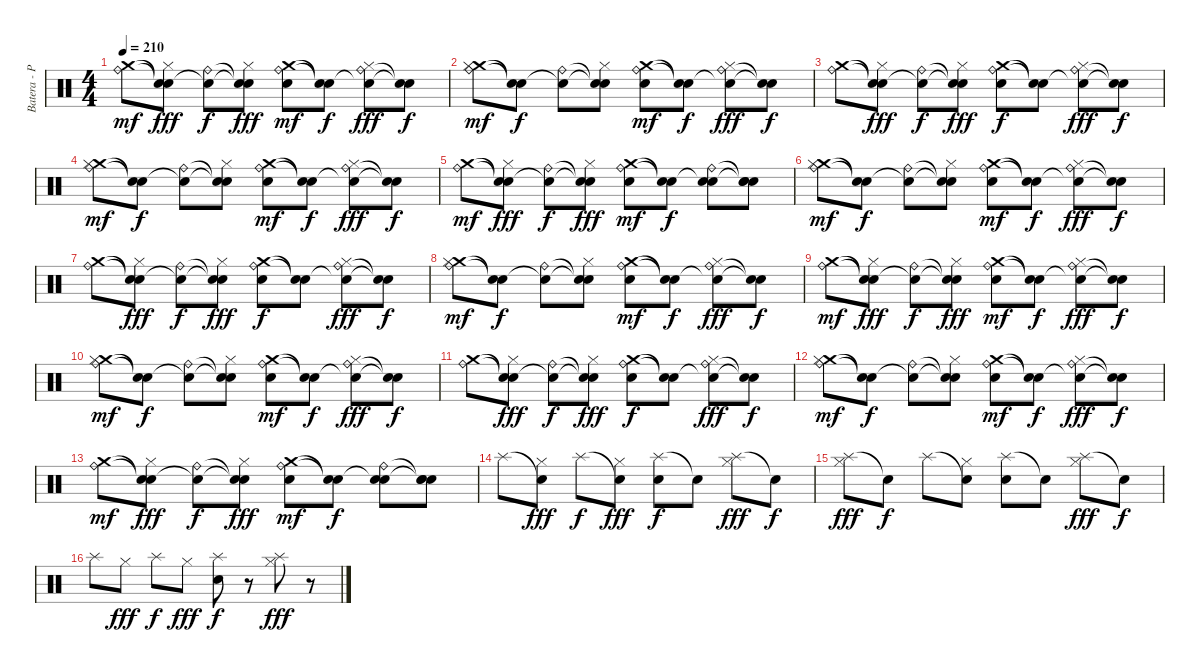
\track ("Batera - Pelado" "Batera - P") {instrument percussion}
\staff {score}
\articulation defaults
\ts (4 4)
\tempo 210
\clef neutral
\ks c
("Crash medium (hit)" "Ride (bell)").8{dy mf} ("Snare (hit)"{t} "Snare (hit)"{t} "Hi-Hat (closed)").8{dy fff} ("Snare (hit)"{t} "Ride (bell)").8{dy f} ("Snare (hit)"{t} "Snare (hit)"{t} "Hi-Hat (closed)").8{dy fff} ("Crash medium (hit)" "Ride (bell)" "Electric Snare (hit)").8{dy mf} ("Snare (hit)"{t} "Snare (hit)"{t}).8{dy f} ("Snare (hit)"{t} "Ride (bell)" "Hi-Hat (closed)").8{dy fff} ("Snare (hit)"{t} "Snare (hit)"{t}).8{dy f} |
("Crash medium (hit)" "Ride (bell)" "Hi-Hat (closed)").8{dy mf} ("Snare (hit)"{t} "Snare (hit)"{t}).8{dy f} ("Snare (hit)"{t} "Ride (bell)").8 ("Snare (hit)"{t} "Snare (hit)"{t} "Hi-Hat (closed)").8 ("Crash medium (hit)" "Ride (bell)" "Electric Snare (hit)").8{dy mf} ("Snare (hit)"{t} "Snare (hit)"{t}).8{dy f} ("Snare (hit)"{t} "Ride (bell)" "Hi-Hat (closed)").8{dy fff} ("Snare (hit)"{t} "Snare (hit)"{t}).8{dy f} |
("Crash medium (hit)" "Ride (bell)").8 ("Snare (hit)"{t} "Snare (hit)"{t} "Hi-Hat (closed)").8{dy fff} ("Snare (hit)"{t} "Ride (bell)").8{dy f} ("Snare (hit)"{t} "Snare (hit)"{t} "Hi-Hat (closed)").8{dy fff} ("Crash medium (hit)" "Ride (bell)" "Electric Snare (hit)").8{dy f} ("Snare (hit)"{t} "Snare (hit)"{t}).8 ("Snare (hit)"{t} "Ride (bell)" "Hi-Hat (closed)").8{dy fff} ("Snare (hit)"{t} "Snare (hit)"{t}).8{dy f} |
("Crash medium (hit)" "Ride (bell)" "Hi-Hat (closed)").8{dy mf} ("Snare (hit)"{t} "Snare (hit)"{t}).8{dy f} ("Snare (hit)"{t} "Ride (bell)").8 ("Snare (hit)"{t} "Snare (hit)"{t} "Hi-Hat (closed)").8 ("Crash medium (hit)" "Ride (bell)" "Electric Snare (hit)").8{dy mf} ("Snare (hit)"{t} "Snare (hit)"{t}).8{dy f} ("Snare (hit)"{t} "Ride (bell)" "Hi-Hat (closed)").8{dy fff} ("Snare (hit)"{t} "Snare (hit)"{t}).8{dy f} |
("Crash medium (hit)" "Ride (bell)").8{dy mf} ("Snare (hit)"{t} "Snare (hit)"{t} "Hi-Hat (closed)").8{dy fff} ("Snare (hit)"{t} "Ride (bell)").8{dy f} ("Snare (hit)"{t} "Snare (hit)"{t} "Hi-Hat (closed)").8{dy fff} ("Crash medium (hit)" "Ride (bell)" "Electric Snare (hit)").8{dy mf} ("Snare (hit)"{t} "Snare (hit)"{t}).8{dy f} ("Snare (hit)"{t} "Ride (bell)" "Electric Snare (hit)").8 ("Snare (hit)"{t} "Snare (hit)"{t} "Electric Snare (hit)").8 |
("Crash medium (hit)" "Ride (bell)" "Hi-Hat (closed)").8{dy mf} ("Snare (hit)"{t} "Snare (hit)"{t}).8{dy f} ("Snare (hit)"{t} "Ride (bell)").8 ("Snare (hit)"{t} "Snare (hit)"{t} "Hi-Hat (closed)").8 ("Crash medium (hit)" "Ride (bell)" "Electric Snare (hit)").8{dy mf} ("Snare (hit)"{t} "Snare (hit)"{t}).8{dy f} ("Snare (hit)"{t} "Ride (bell)" "Hi-Hat (closed)").8{dy fff} ("Snare (hit)"{t} "Snare (hit)"{t}).8{dy f} |
("Crash medium (hit)" "Ride (bell)").8 ("Snare (hit)"{t} "Snare (hit)"{t} "Hi-Hat (closed)").8{dy fff} ("Snare (hit)"{t} "Ride (bell)").8{dy f} ("Snare (hit)"{t} "Snare (hit)"{t} "Hi-Hat (closed)").8{dy fff} ("Crash medium (hit)" "Ride (bell)" "Electric Snare (hit)").8{dy f} ("Snare (hit)"{t} "Snare (hit)"{t}).8 ("Snare (hit)"{t} "Ride (bell)" "Hi-Hat (closed)").8{dy fff} ("Snare (hit)"{t} "Snare (hit)"{t}).8{dy f} |
("Crash medium (hit)" "Ride (bell)" "Hi-Hat (closed)").8{dy mf} ("Snare (hit)"{t} "Snare (hit)"{t}).8{dy f} ("Snare (hit)"{t} "Ride (bell)").8 ("Snare (hit)"{t} "Snare (hit)"{t} "Hi-Hat (closed)").8 ("Crash medium (hit)" "Ride (bell)" "Electric Snare (hit)").8{dy mf} ("Snare (hit)"{t} "Snare (hit)"{t}).8{dy f} ("Snare (hit)"{t} "Ride (bell)" "Hi-Hat (closed)").8{dy fff} ("Snare (hit)"{t} "Snare (hit)"{t}).8{dy f} |
("Crash medium (hit)" "Ride (bell)").8{dy mf} ("Snare (hit)"{t} "Snare (hit)"{t} "Hi-Hat (closed)").8{dy fff} ("Snare (hit)"{t} "Ride (bell)").8{dy f} ("Snare (hit)"{t} "Snare (hit)"{t} "Hi-Hat (closed)").8{dy fff} ("Crash medium (hit)" "Ride (bell)" "Electric Snare (hit)").8{dy mf} ("Snare (hit)"{t} "Snare (hit)"{t}).8{dy f} ("Snare (hit)"{t} "Ride (bell)" "Hi-Hat (closed)").8{dy fff} ("Snare (hit)"{t} "Snare (hit)"{t}).8{dy f} |
("Crash medium (hit)" "Ride (bell)" "Hi-Hat (closed)").8{dy mf} ("Snare (hit)"{t} "Snare (hit)"{t}).8{dy f} ("Snare (hit)"{t} "Ride (bell)").8 ("Snare (hit)"{t} "Snare (hit)"{t} "Hi-Hat (closed)").8 ("Crash medium (hit)" "Ride (bell)" "Electric Snare (hit)").8{dy mf} ("Snare (hit)"{t} "Snare (hit)"{t}).8{dy f} ("Snare (hit)"{t} "Ride (bell)" "Hi-Hat (closed)").8{dy fff} ("Snare (hit)"{t} "Snare (hit)"{t}).8{dy f} |
("Crash medium (hit)" "Ride (bell)").8 ("Snare (hit)"{t} "Snare (hit)"{t} "Hi-Hat (closed)").8{dy fff} ("Snare (hit)"{t} "Ride (bell)").8{dy f} ("Snare (hit)"{t} "Snare (hit)"{t} "Hi-Hat (closed)").8{dy fff} ("Crash medium (hit)" "Ride (bell)" "Electric Snare (hit)").8{dy f} ("Snare (hit)"{t} "Snare (hit)"{t}).8 ("Snare (hit)"{t} "Ride (bell)" "Hi-Hat (closed)").8{dy fff} ("Snare (hit)"{t} "Snare (hit)"{t}).8{dy f} |
("Crash medium (hit)" "Ride (bell)" "Hi-Hat (closed)").8{dy mf} ("Snare (hit)"{t} "Snare (hit)"{t}).8{dy f} ("Snare (hit)"{t} "Ride (bell)").8 ("Snare (hit)"{t} "Snare (hit)"{t} "Hi-Hat (closed)").8 ("Crash medium (hit)" "Ride (bell)" "Electric Snare (hit)").8{dy mf} ("Snare (hit)"{t} "Snare (hit)"{t}).8{dy f} ("Snare (hit)"{t} "Ride (bell)" "Hi-Hat (closed)").8{dy fff} ("Snare (hit)"{t} "Snare (hit)"{t}).8{dy f} |
("Crash medium (hit)" "Ride (bell)").8{dy mf} ("Snare (hit)"{t} "Snare (hit)"{t} "Hi-Hat (closed)").8{dy fff} ("Snare (hit)"{t} "Ride (bell)").8{dy f} ("Snare (hit)"{t} "Snare (hit)"{t} "Hi-Hat (closed)").8{dy fff} ("Crash medium (hit)" "Ride (bell)" "Electric Snare (hit)").8{dy mf} ("Snare (hit)"{t} "Snare (hit)"{t}).8{dy f} ("Snare (hit)"{t} "Ride (bell)" "Electric Snare (hit)").8 ("Snare (hit)"{t} "Snare (hit)"{t} "Electric Snare (hit)").8 |
"Splash (hit)".8 ("Snare (hit)"{t} "Hi-Hat (closed)").8{dy fff} "Splash (hit)".8{dy f} ("Snare (hit)"{t} "Hi-Hat (closed)").8{dy fff} ("Splash (hit)" "Electric Snare (hit)").8{dy f} "Snare (hit)"{t}.8 ("Splash (hit)" "Hi-Hat (closed)").8{dy fff} "Snare (hit)"{t}.8{dy f} |
("Splash (hit)" "Hi-Hat (closed)").8{dy fff} "Snare (hit)"{t}.8{dy f} "Splash (hit)".8 ("Snare (hit)"{t} "Hi-Hat (closed)").8 ("Splash (hit)" "Electric Snare (hit)").8 "Snare (hit)"{t}.8 ("Splash (hit)" "Hi-Hat (closed)").8{dy fff} "Snare (hit)"{t}.8{dy f} |
"Splash (hit)".8 "Hi-Hat (closed)".8{dy fff} "Splash (hit)".8{dy f} "Hi-Hat (closed)".8{dy fff} ("Splash (hit)" "Electric Snare (hit)").8{dy f} r.8 ("Splash (hit)" "Hi-Hat (closed)").8{dy fff} r.8
